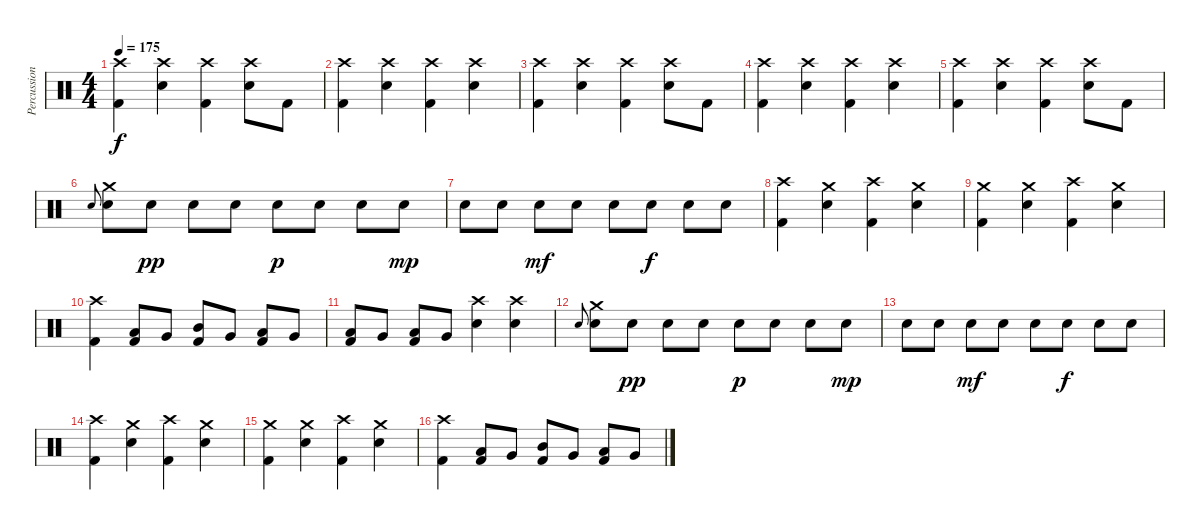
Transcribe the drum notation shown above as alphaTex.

\track ("Percussion" "Percussion") {instrument percussion}
\staff {score}
\articulation defaults
\ts (4 4)
\tempo 175
\clef neutral
\ks c
("Crash high (hit)" "Kick (hit) 2").4{dy f} ("Crash high (hit)" "Electric Snare (hit)").4 ("Crash high (hit)" "Kick (hit) 2").4 ("Crash high (hit)" "Electric Snare (hit)").8 "Kick (hit) 2".8 |
("Crash high (hit)" "Kick (hit) 2").4 ("Crash high (hit)" "Electric Snare (hit)").4 ("Crash high (hit)" "Kick (hit) 2").4 ("Crash high (hit)" "Electric Snare (hit)").4 |
("Crash high (hit)" "Kick (hit) 2").4 ("Crash high (hit)" "Electric Snare (hit)").4 ("Crash high (hit)" "Kick (hit) 2").4 ("Crash high (hit)" "Electric Snare (hit)").8 "Kick (hit) 2".8 |
("Crash high (hit)" "Kick (hit) 2").4 ("Crash high (hit)" "Electric Snare (hit)").4 ("Crash high (hit)" "Kick (hit) 2").4 ("Crash high (hit)" "Electric Snare (hit)").4 |
("Crash high (hit)" "Kick (hit) 2").4 ("Crash high (hit)" "Electric Snare (hit)").4 ("Crash high (hit)" "Kick (hit) 2").4 ("Crash high (hit)" "Electric Snare (hit)").8 "Kick (hit) 2".8 |
"Electric Snare (hit)".8{gr onbeat} ("Crash medium (hit)" "Electric Snare (hit)").8 "Electric Snare (hit)".8{dy pp} "Electric Snare (hit)".8 "Electric Snare (hit)".8 "Electric Snare (hit)".8{dy p} "Electric Snare (hit)".8 "Electric Snare (hit)".8 "Electric Snare (hit)".8{dy mp} |
"Electric Snare (hit)".8 "Electric Snare (hit)".8 "Electric Snare (hit)".8{dy mf} "Electric Snare (hit)".8 "Electric Snare (hit)".8 "Electric Snare (hit)".8{dy f} "Electric Snare (hit)".8 "Electric Snare (hit)".8 |
("Crash high (hit)" "Kick (hit) 2").4 ("Crash medium (hit)" "Electric Snare (hit)").4 ("Crash high (hit)" "Kick (hit) 2").4 ("Crash medium (hit)" "Electric Snare (hit)").4 |
("Crash medium (hit)" "Kick (hit) 2").4 ("Crash medium (hit)" "Electric Snare (hit)").4 ("Crash high (hit)" "Kick (hit) 2").4 ("Crash medium (hit)" "Electric Snare (hit)").4 |
("Crash high (hit)" "Kick (hit) 2").4 ("Low Tom (hit)" "Kick (hit) 2").8 "Very Low Tom (hit)".8 ("Mid Tom (hit)" "Kick (hit) 2").8 "Very Low Tom (hit)".8 ("Low Tom (hit)" "Kick (hit) 2").8 "Very Low Tom (hit)".8 |
("Low Floor Tom (hit)" "Kick (hit) 2").8 "Very Low Tom (hit)".8 ("Low Floor Tom (hit)" "Kick (hit) 2").8 "Very Low Tom (hit)".8 ("Crash high (hit)" "Electric Snare (hit)").4 ("Crash high (hit)" "Electric Snare (hit)").4 |
"Electric Snare (hit)".8{gr onbeat} ("Crash medium (hit)" "Electric Snare (hit)").8 "Electric Snare (hit)".8{dy pp} "Electric Snare (hit)".8 "Electric Snare (hit)".8 "Electric Snare (hit)".8{dy p} "Electric Snare (hit)".8 "Electric Snare (hit)".8 "Electric Snare (hit)".8{dy mp} |
"Electric Snare (hit)".8 "Electric Snare (hit)".8 "Electric Snare (hit)".8{dy mf} "Electric Snare (hit)".8 "Electric Snare (hit)".8 "Electric Snare (hit)".8{dy f} "Electric Snare (hit)".8 "Electric Snare (hit)".8 |
("Crash high (hit)" "Kick (hit) 2").4 ("Crash medium (hit)" "Electric Snare (hit)").4 ("Crash high (hit)" "Kick (hit) 2").4 ("Crash medium (hit)" "Electric Snare (hit)").4 |
("Crash medium (hit)" "Kick (hit) 2").4 ("Crash medium (hit)" "Electric Snare (hit)").4 ("Crash high (hit)" "Kick (hit) 2").4 ("Crash medium (hit)" "Electric Snare (hit)").4 |
("Crash high (hit)" "Kick (hit) 2").4 ("Low Tom (hit)" "Kick (hit) 2").8 "Very Low Tom (hit)".8 ("Mid Tom (hit)" "Kick (hit) 2").8 "Very Low Tom (hit)".8 ("Low Tom (hit)" "Kick (hit) 2").8 "Very Low Tom (hit)".8
